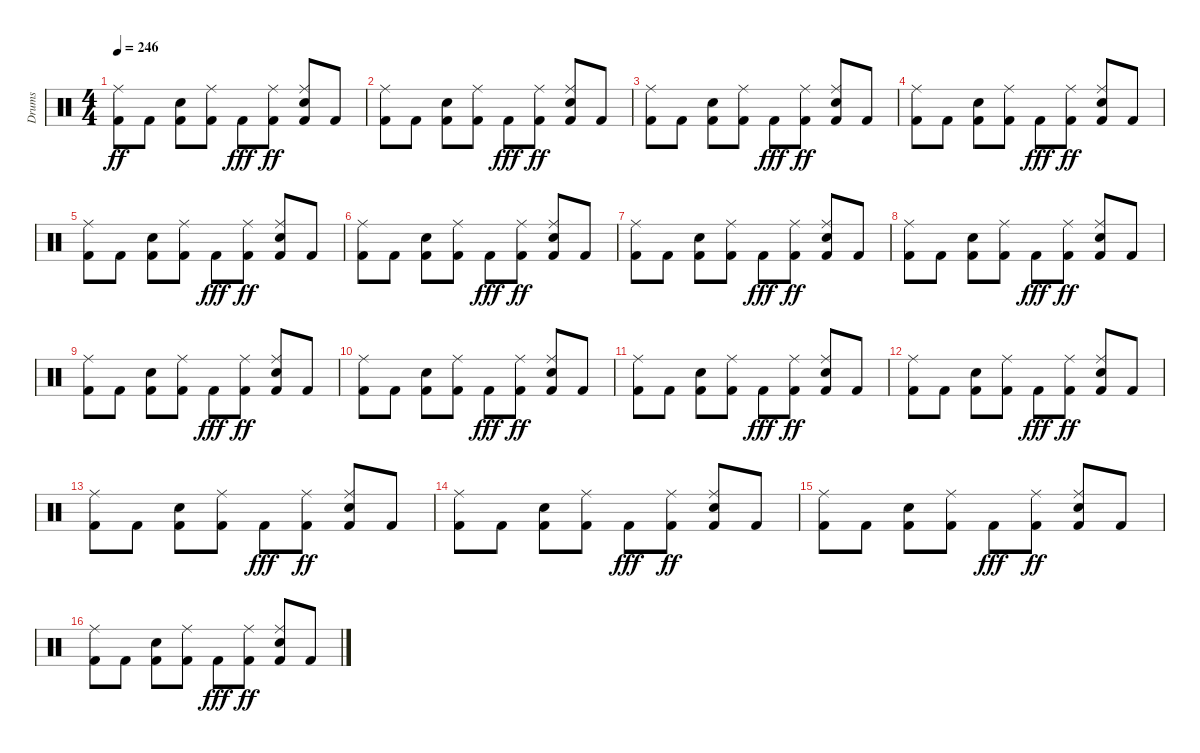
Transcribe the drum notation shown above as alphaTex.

\track ("Drums" "Drums") {instrument percussion}
\staff {score}
\articulation defaults
\ts (4 4)
\tempo 246
\clef neutral
\ks c
("Kick (hit) 2" "Ride (middle)").8{dy ff volume 12} "Kick (hit) 2".8 ("Kick (hit) 2" "Snare (hit) 2").8 ("Kick (hit) 2" "Ride (middle)").8 "Kick (hit) 2".8{dy fff} ("Kick (hit) 2" "Ride (middle)").8{dy ff} ("Kick (hit) 2" "Snare (hit) 2" "Ride (middle)").8 "Kick (hit) 2".8 |
("Kick (hit) 2" "Ride (middle)").8{volume 12} "Kick (hit) 2".8 ("Kick (hit) 2" "Snare (hit) 2").8 ("Kick (hit) 2" "Ride (middle)").8 "Kick (hit) 2".8{dy fff} ("Kick (hit) 2" "Ride (middle)").8{dy ff} ("Kick (hit) 2" "Snare (hit) 2" "Ride (middle)").8 "Kick (hit) 2".8 |
("Kick (hit) 2" "Ride (middle)").8{volume 12} "Kick (hit) 2".8 ("Kick (hit) 2" "Snare (hit) 2").8 ("Kick (hit) 2" "Ride (middle)").8 "Kick (hit) 2".8{dy fff} ("Kick (hit) 2" "Ride (middle)").8{dy ff} ("Kick (hit) 2" "Snare (hit) 2" "Ride (middle)").8 "Kick (hit) 2".8 |
("Kick (hit) 2" "Ride (middle)").8{volume 12} "Kick (hit) 2".8 ("Kick (hit) 2" "Snare (hit) 2").8 ("Kick (hit) 2" "Ride (middle)").8 "Kick (hit) 2".8{dy fff} ("Kick (hit) 2" "Ride (middle)").8{dy ff} ("Kick (hit) 2" "Snare (hit) 2" "Ride (middle)").8 "Kick (hit) 2".8 |
("Kick (hit) 2" "Ride (middle)").8{volume 12} "Kick (hit) 2".8 ("Kick (hit) 2" "Snare (hit) 2").8 ("Kick (hit) 2" "Ride (middle)").8 "Kick (hit) 2".8{dy fff} ("Kick (hit) 2" "Ride (middle)").8{dy ff} ("Kick (hit) 2" "Snare (hit) 2" "Ride (middle)").8 "Kick (hit) 2".8 |
("Kick (hit) 2" "Ride (middle)").8{volume 12} "Kick (hit) 2".8 ("Kick (hit) 2" "Snare (hit) 2").8 ("Kick (hit) 2" "Ride (middle)").8 "Kick (hit) 2".8{dy fff} ("Kick (hit) 2" "Ride (middle)").8{dy ff} ("Kick (hit) 2" "Snare (hit) 2" "Ride (middle)").8 "Kick (hit) 2".8 |
("Kick (hit) 2" "Ride (middle)").8{volume 12} "Kick (hit) 2".8 ("Kick (hit) 2" "Snare (hit) 2").8 ("Kick (hit) 2" "Ride (middle)").8 "Kick (hit) 2".8{dy fff} ("Kick (hit) 2" "Ride (middle)").8{dy ff} ("Kick (hit) 2" "Snare (hit) 2" "Ride (middle)").8 "Kick (hit) 2".8 |
("Kick (hit) 2" "Ride (middle)").8{volume 12} "Kick (hit) 2".8 ("Kick (hit) 2" "Snare (hit) 2").8 ("Kick (hit) 2" "Ride (middle)").8 "Kick (hit) 2".8{dy fff} ("Kick (hit) 2" "Ride (middle)").8{dy ff} ("Kick (hit) 2" "Snare (hit) 2" "Ride (middle)").8 "Kick (hit) 2".8 |
("Kick (hit) 2" "Ride (middle)").8{volume 12} "Kick (hit) 2".8 ("Kick (hit) 2" "Snare (hit) 2").8 ("Kick (hit) 2" "Ride (middle)").8 "Kick (hit) 2".8{dy fff} ("Kick (hit) 2" "Ride (middle)").8{dy ff} ("Kick (hit) 2" "Snare (hit) 2" "Ride (middle)").8 "Kick (hit) 2".8 |
("Kick (hit) 2" "Ride (middle)").8{volume 12} "Kick (hit) 2".8 ("Kick (hit) 2" "Snare (hit) 2").8 ("Kick (hit) 2" "Ride (middle)").8 "Kick (hit) 2".8{dy fff} ("Kick (hit) 2" "Ride (middle)").8{dy ff} ("Kick (hit) 2" "Snare (hit) 2" "Ride (middle)").8 "Kick (hit) 2".8 |
("Kick (hit) 2" "Ride (middle)").8{volume 12} "Kick (hit) 2".8 ("Kick (hit) 2" "Snare (hit) 2").8 ("Kick (hit) 2" "Ride (middle)").8 "Kick (hit) 2".8{dy fff} ("Kick (hit) 2" "Ride (middle)").8{dy ff} ("Kick (hit) 2" "Snare (hit) 2" "Ride (middle)").8 "Kick (hit) 2".8 |
("Kick (hit) 2" "Ride (middle)").8{volume 12} "Kick (hit) 2".8 ("Kick (hit) 2" "Snare (hit) 2").8 ("Kick (hit) 2" "Ride (middle)").8 "Kick (hit) 2".8{dy fff} ("Kick (hit) 2" "Ride (middle)").8{dy ff} ("Kick (hit) 2" "Snare (hit) 2" "Ride (middle)").8 "Kick (hit) 2".8 |
("Kick (hit) 2" "Ride (middle)").8{volume 12} "Kick (hit) 2".8 ("Kick (hit) 2" "Snare (hit) 2").8 ("Kick (hit) 2" "Ride (middle)").8 "Kick (hit) 2".8{dy fff} ("Kick (hit) 2" "Ride (middle)").8{dy ff} ("Kick (hit) 2" "Snare (hit) 2" "Ride (middle)").8 "Kick (hit) 2".8 |
("Kick (hit) 2" "Ride (middle)").8{volume 12} "Kick (hit) 2".8 ("Kick (hit) 2" "Snare (hit) 2").8 ("Kick (hit) 2" "Ride (middle)").8 "Kick (hit) 2".8{dy fff} ("Kick (hit) 2" "Ride (middle)").8{dy ff} ("Kick (hit) 2" "Snare (hit) 2" "Ride (middle)").8 "Kick (hit) 2".8 |
("Kick (hit) 2" "Ride (middle)").8{volume 12} "Kick (hit) 2".8 ("Kick (hit) 2" "Snare (hit) 2").8 ("Kick (hit) 2" "Ride (middle)").8 "Kick (hit) 2".8{dy fff} ("Kick (hit) 2" "Ride (middle)").8{dy ff} ("Kick (hit) 2" "Snare (hit) 2" "Ride (middle)").8 "Kick (hit) 2".8 |
("Kick (hit) 2" "Ride (middle)").8{volume 12} "Kick (hit) 2".8 ("Kick (hit) 2" "Snare (hit) 2").8 ("Kick (hit) 2" "Ride (middle)").8 "Kick (hit) 2".8{dy fff} ("Kick (hit) 2" "Ride (middle)").8{dy ff} ("Kick (hit) 2" "Snare (hit) 2" "Ride (middle)").8 "Kick (hit) 2".8
